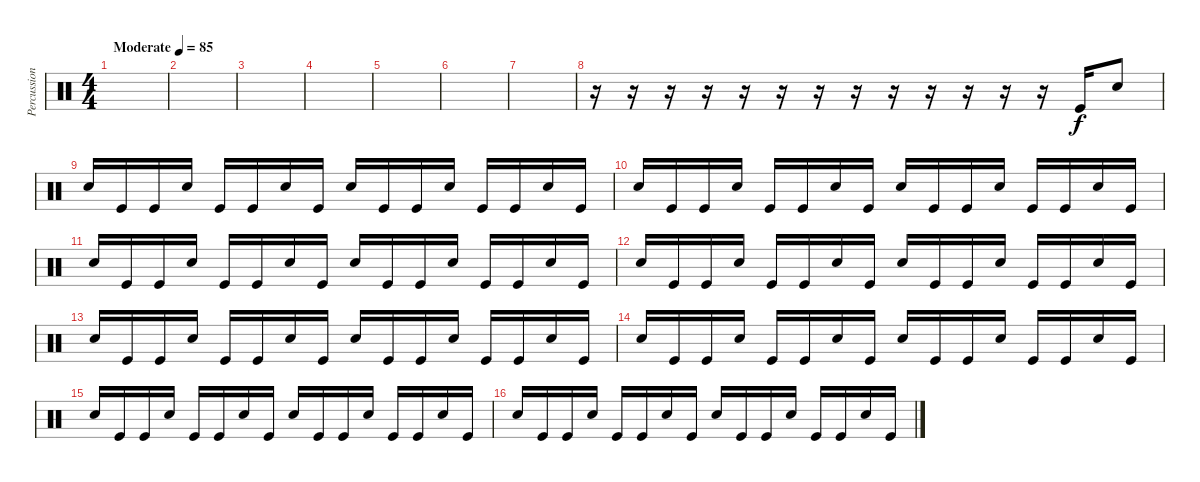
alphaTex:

\track ("Percussion" "Percussion") {instrument percussion}
\staff {score}
\articulation defaults
\ts (4 4)
\tempo (85 "Moderate")
\clef neutral
\ks c
|
|
|
|
|
|
|
r.16 r.16 r.16 r.16 r.16 r.16 r.16 r.16 r.16 r.16 r.16 r.16 r.16 "Kick (hit)".16 "Electric Snare (hit)".8 |
"Electric Snare (hit)".16 "Kick (hit)".16 "Kick (hit)".16 "Electric Snare (hit)".16 "Kick (hit)".16 "Kick (hit)".16 "Electric Snare (hit)".16 "Kick (hit)".16 "Electric Snare (hit)".16 "Kick (hit)".16 "Kick (hit)".16 "Electric Snare (hit)".16 "Kick (hit)".16 "Kick (hit)".16 "Electric Snare (hit)".16 "Kick (hit)".16 |
"Electric Snare (hit)".16 "Kick (hit)".16 "Kick (hit)".16 "Electric Snare (hit)".16 "Kick (hit)".16 "Kick (hit)".16 "Electric Snare (hit)".16 "Kick (hit)".16 "Electric Snare (hit)".16 "Kick (hit)".16 "Kick (hit)".16 "Electric Snare (hit)".16 "Kick (hit)".16 "Kick (hit)".16 "Electric Snare (hit)".16 "Kick (hit)".16 |
"Electric Snare (hit)".16 "Kick (hit)".16 "Kick (hit)".16 "Electric Snare (hit)".16 "Kick (hit)".16 "Kick (hit)".16 "Electric Snare (hit)".16 "Kick (hit)".16 "Electric Snare (hit)".16 "Kick (hit)".16 "Kick (hit)".16 "Electric Snare (hit)".16 "Kick (hit)".16 "Kick (hit)".16 "Electric Snare (hit)".16 "Kick (hit)".16 |
"Electric Snare (hit)".16 "Kick (hit)".16 "Kick (hit)".16 "Electric Snare (hit)".16 "Kick (hit)".16 "Kick (hit)".16 "Electric Snare (hit)".16 "Kick (hit)".16 "Electric Snare (hit)".16 "Kick (hit)".16 "Kick (hit)".16 "Electric Snare (hit)".16 "Kick (hit)".16 "Kick (hit)".16 "Electric Snare (hit)".16 "Kick (hit)".16 |
"Electric Snare (hit)".16 "Kick (hit)".16 "Kick (hit)".16 "Electric Snare (hit)".16 "Kick (hit)".16 "Kick (hit)".16 "Electric Snare (hit)".16 "Kick (hit)".16 "Electric Snare (hit)".16 "Kick (hit)".16 "Kick (hit)".16 "Electric Snare (hit)".16 "Kick (hit)".16 "Kick (hit)".16 "Electric Snare (hit)".16 "Kick (hit)".16 |
"Electric Snare (hit)".16 "Kick (hit)".16 "Kick (hit)".16 "Electric Snare (hit)".16 "Kick (hit)".16 "Kick (hit)".16 "Electric Snare (hit)".16 "Kick (hit)".16 "Electric Snare (hit)".16 "Kick (hit)".16 "Kick (hit)".16 "Electric Snare (hit)".16 "Kick (hit)".16 "Kick (hit)".16 "Electric Snare (hit)".16 "Kick (hit)".16 |
"Electric Snare (hit)".16 "Kick (hit)".16 "Kick (hit)".16 "Electric Snare (hit)".16 "Kick (hit)".16 "Kick (hit)".16 "Electric Snare (hit)".16 "Kick (hit)".16 "Electric Snare (hit)".16 "Kick (hit)".16 "Kick (hit)".16 "Electric Snare (hit)".16 "Kick (hit)".16 "Kick (hit)".16 "Electric Snare (hit)".16 "Kick (hit)".16 |
"Electric Snare (hit)".16 "Kick (hit)".16 "Kick (hit)".16 "Electric Snare (hit)".16 "Kick (hit)".16 "Kick (hit)".16 "Electric Snare (hit)".16 "Kick (hit)".16 "Electric Snare (hit)".16 "Kick (hit)".16 "Kick (hit)".16 "Electric Snare (hit)".16 "Kick (hit)".16 "Kick (hit)".16 "Electric Snare (hit)".16 "Kick (hit)".16
